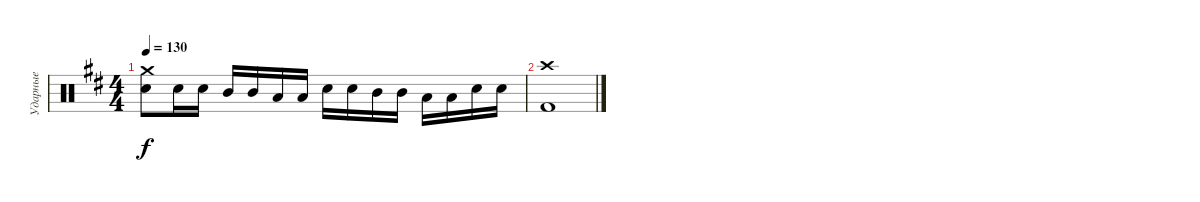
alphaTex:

\track ("Ударные" "Ударные") {instrument percussion}
\staff {score}
\articulation defaults
\ts (4 4)
\tempo 130
\clef neutral
\ks d
("Crash medium (hit)" "Electric Snare (hit)").8{dy f} "Electric Snare (hit)".16 "Electric Snare (hit)".16 "Mid Tom (hit)".16 "Mid Tom (hit)".16 "Low Tom (hit)".16 "Low Tom (hit)".16 "Electric Snare (hit)".16 "Electric Snare (hit)".16 "Mid Tom (hit)".16 "Mid Tom (hit)".16 "Low Tom (hit)".16 "Low Tom (hit)".16 "Electric Snare (hit)".16 "Electric Snare (hit)".16 |
("Crash high (hit)" "Kick (hit) 2").1
